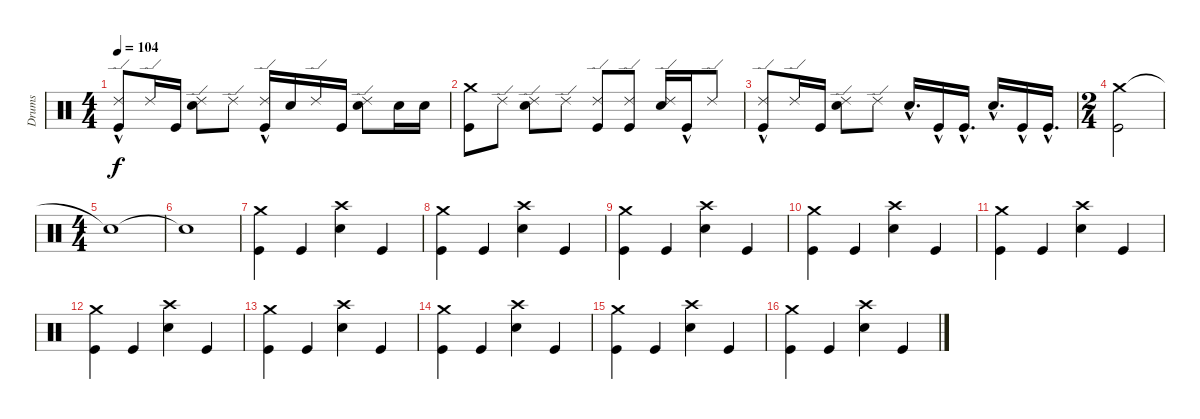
\track ("Drums" "Drums") {instrument percussion}
\staff {score}
\articulation defaults
\ts (4 4)
\tempo 104
\clef neutral
\ks c
("Kick (hit)"{hac} "Ride (edge) 2").8{dy f} "Ride (edge) 2".16 "Kick (hit)".16 ("Electric Snare (hit)" "Ride (edge) 2").8 "Ride (edge) 2".8 ("Kick (hit)"{hac} "Ride (edge) 2").16 "Electric Snare (hit)".16 "Ride (edge) 2".16 "Kick (hit)".16 ("Electric Snare (hit)" "Ride (edge) 2").8 "Electric Snare (hit)".16 "Electric Snare (hit)".16 |
("Kick (hit)" "Crash medium (hit)").8 "Ride (edge) 2".8 ("Electric Snare (hit)" "Ride (edge) 2").8 "Ride (edge) 2".8 ("Kick (hit)" "Ride (edge) 2").8 ("Kick (hit)" "Ride (edge) 2").8 ("Electric Snare (hit)" "Ride (edge) 2").16 "Kick (hit)"{hac}.16 "Ride (edge) 2".8 |
("Kick (hit)"{hac} "Ride (edge) 2").8 "Ride (edge) 2".16 "Kick (hit)".16 ("Electric Snare (hit)" "Ride (edge) 2").8 "Ride (edge) 2".8 "Electric Snare (hit)"{hac}.16{d} "Kick (hit)"{hac}.16 "Kick (hit)"{hac}.16{d} "Electric Snare (hit)"{hac}.16{d} "Kick (hit)"{hac}.16 "Kick (hit)"{hac}.16{d} |
\ts (2 4)
("Crash medium (hit)" "Kick (hit)").2 |
\ts (4 4)
"Snare (hit)"{t}.1 |
"Snare (hit)"{t}.1 |
("Kick (hit)" "Crash medium (hit)").4 "Kick (hit)".4 ("Electric Snare (hit)" "Crash high (hit)").4 "Kick (hit)".4 |
("Kick (hit)" "Crash medium (hit)").4 "Kick (hit)".4 ("Electric Snare (hit)" "Crash high (hit)").4 "Kick (hit)".4 |
("Kick (hit)" "Crash medium (hit)").4 "Kick (hit)".4 ("Electric Snare (hit)" "Crash high (hit)").4 "Kick (hit)".4 |
("Kick (hit)" "Crash medium (hit)").4 "Kick (hit)".4 ("Electric Snare (hit)" "Crash high (hit)").4 "Kick (hit)".4 |
("Kick (hit)" "Crash medium (hit)").4 "Kick (hit)".4 ("Electric Snare (hit)" "Crash high (hit)").4 "Kick (hit)".4 |
("Kick (hit)" "Crash medium (hit)").4 "Kick (hit)".4 ("Electric Snare (hit)" "Crash high (hit)").4 "Kick (hit)".4 |
("Kick (hit)" "Crash medium (hit)").4 "Kick (hit)".4 ("Electric Snare (hit)" "Crash high (hit)").4 "Kick (hit)".4 |
("Kick (hit)" "Crash medium (hit)").4 "Kick (hit)".4 ("Electric Snare (hit)" "Crash high (hit)").4 "Kick (hit)".4 |
("Kick (hit)" "Crash medium (hit)").4 "Kick (hit)".4 ("Electric Snare (hit)" "Crash high (hit)").4 "Kick (hit)".4 |
("Kick (hit)" "Crash medium (hit)").4 "Kick (hit)".4 ("Electric Snare (hit)" "Crash high (hit)").4 "Kick (hit)".4
